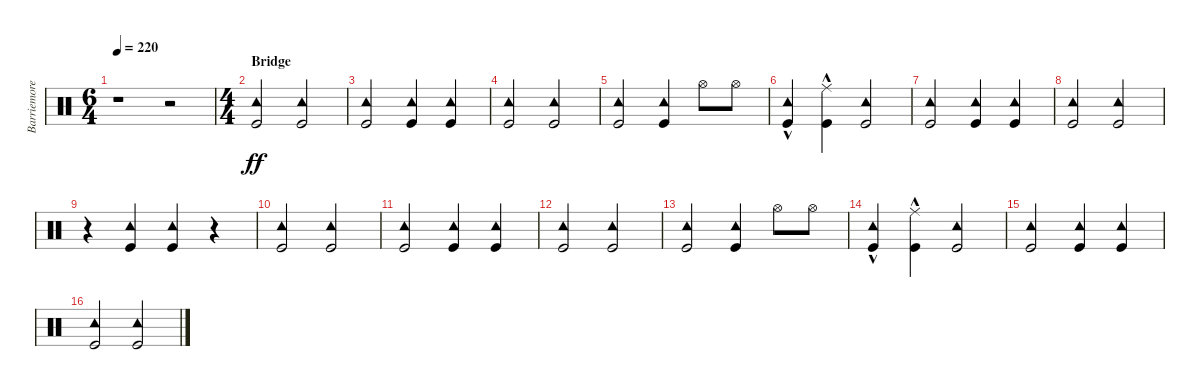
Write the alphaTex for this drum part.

\track ("Barriemore Barlow (Drums)" "Barriemore") {instrument percussion}
\staff {score}
\articulation defaults
\ts (6 4)
\tempo 220
\clef neutral
\ks c
r.1{dy ff} r.2 |
\ts (4 4)
\section ("" "Bridge")
("Kick (hit)" "Tambourine (hit)").2 ("Kick (hit)" "Tambourine (hit)").2 |
("Kick (hit)" "Tambourine (hit)").2 ("Kick (hit)" "Tambourine (hit)").4 ("Kick (hit)" "Tambourine (hit)").4 |
("Kick (hit)" "Tambourine (hit)").2 ("Kick (hit)" "Tambourine (hit)").2 |
("Kick (hit)" "Tambourine (hit)").2 ("Kick (hit)" "Tambourine (hit)").4 "Hi-Hat (open)".8 "Hi-Hat (open)".8 |
("Kick (hit)"{hac} "Tambourine (hit)"{hac}).4 ("Kick (hit)"{hac} "Ride (middle)").4 ("Kick (hit)" "Tambourine (hit)").2 |
("Kick (hit)" "Tambourine (hit)").2 ("Kick (hit)" "Tambourine (hit)").4 ("Kick (hit)" "Tambourine (hit)").4 |
("Kick (hit)" "Tambourine (hit)").2 ("Kick (hit)" "Tambourine (hit)").2 |
r.4 ("Kick (hit)" "Tambourine (hit)").4 ("Kick (hit)" "Tambourine (hit)").4 r.4 |
("Kick (hit)" "Tambourine (hit)").2 ("Kick (hit)" "Tambourine (hit)").2 |
("Kick (hit)" "Tambourine (hit)").2 ("Kick (hit)" "Tambourine (hit)").4 ("Kick (hit)" "Tambourine (hit)").4 |
("Kick (hit)" "Tambourine (hit)").2 ("Kick (hit)" "Tambourine (hit)").2 |
("Kick (hit)" "Tambourine (hit)").2 ("Kick (hit)" "Tambourine (hit)").4 "Hi-Hat (open)".8 "Hi-Hat (open)".8 |
("Kick (hit)"{hac} "Tambourine (hit)"{hac}).4 ("Kick (hit)"{hac} "Ride (middle)").4 ("Kick (hit)" "Tambourine (hit)").2 |
("Kick (hit)" "Tambourine (hit)").2 ("Kick (hit)" "Tambourine (hit)").4 ("Kick (hit)" "Tambourine (hit)").4 |
("Kick (hit)" "Tambourine (hit)").2 ("Kick (hit)" "Tambourine (hit)").2
